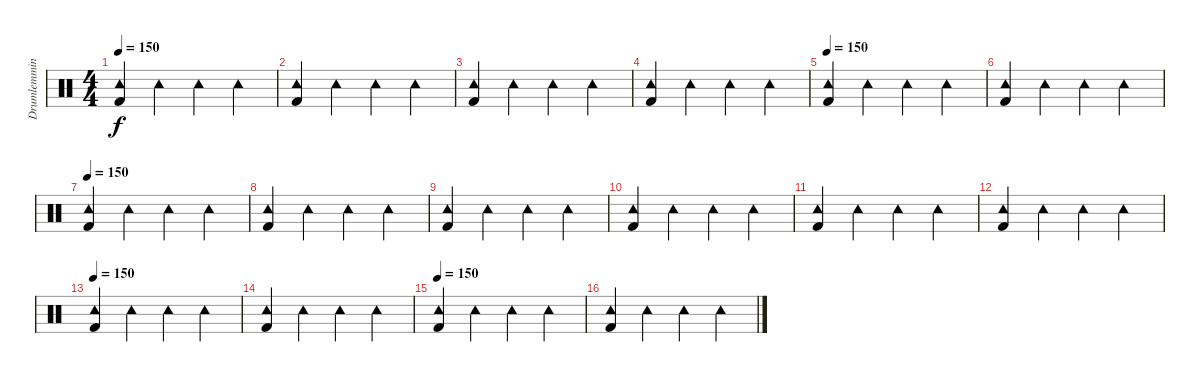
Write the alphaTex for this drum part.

\track ("Drumlemming" "Drumlemmin") {instrument percussion}
\staff {score}
\articulation defaults
\ts (4 4)
\tempo 150
\clef neutral
\ks c
("Kick (hit) 2" "Tambourine (hit)").4{dy f} "Tambourine (hit)".4 "Tambourine (hit)".4 "Tambourine (hit)".4 |
("Kick (hit) 2" "Tambourine (hit)").4 "Tambourine (hit)".4 "Tambourine (hit)".4 "Tambourine (hit)".4 |
("Kick (hit) 2" "Tambourine (hit)").4 "Tambourine (hit)".4 "Tambourine (hit)".4 "Tambourine (hit)".4 |
("Kick (hit) 2" "Tambourine (hit)").4 "Tambourine (hit)".4 "Tambourine (hit)".4 "Tambourine (hit)".4 |
\tempo 150
("Kick (hit) 2" "Tambourine (hit)").4 "Tambourine (hit)".4 "Tambourine (hit)".4 "Tambourine (hit)".4 |
("Kick (hit) 2" "Tambourine (hit)").4 "Tambourine (hit)".4 "Tambourine (hit)".4 "Tambourine (hit)".4 |
\tempo 150
("Kick (hit) 2" "Tambourine (hit)").4 "Tambourine (hit)".4 "Tambourine (hit)".4 "Tambourine (hit)".4 |
("Kick (hit) 2" "Tambourine (hit)").4 "Tambourine (hit)".4 "Tambourine (hit)".4 "Tambourine (hit)".4 |
("Kick (hit) 2" "Tambourine (hit)").4 "Tambourine (hit)".4 "Tambourine (hit)".4 "Tambourine (hit)".4 |
("Kick (hit) 2" "Tambourine (hit)").4 "Tambourine (hit)".4 "Tambourine (hit)".4 "Tambourine (hit)".4 |
("Kick (hit) 2" "Tambourine (hit)").4 "Tambourine (hit)".4 "Tambourine (hit)".4 "Tambourine (hit)".4 |
("Kick (hit) 2" "Tambourine (hit)").4 "Tambourine (hit)".4 "Tambourine (hit)".4 "Tambourine (hit)".4 |
\tempo 150
("Kick (hit) 2" "Tambourine (hit)").4 "Tambourine (hit)".4 "Tambourine (hit)".4 "Tambourine (hit)".4 |
("Kick (hit) 2" "Tambourine (hit)").4 "Tambourine (hit)".4 "Tambourine (hit)".4 "Tambourine (hit)".4 |
\tempo 150
("Kick (hit) 2" "Tambourine (hit)").4 "Tambourine (hit)".4 "Tambourine (hit)".4 "Tambourine (hit)".4 |
("Kick (hit) 2" "Tambourine (hit)").4 "Tambourine (hit)".4 "Tambourine (hit)".4 "Tambourine (hit)".4
